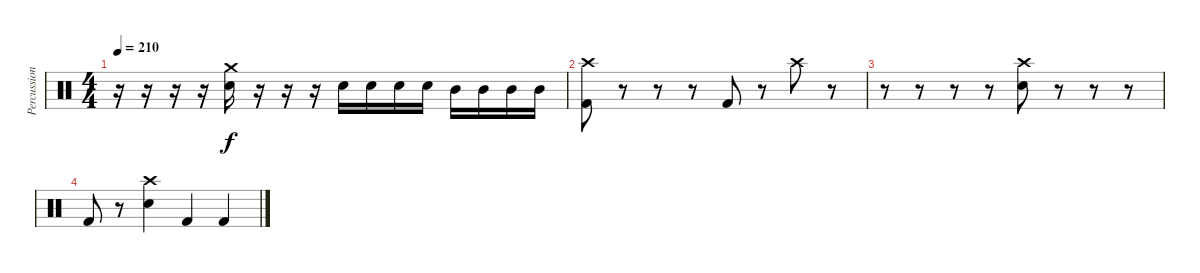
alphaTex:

\track ("Percussion" "Percussion") {instrument percussion}
\staff {score}
\articulation defaults
\ts (4 4)
\tempo 210
\clef neutral
\ks c
r.16{dy f} r.16 r.16 r.16 ("Crash medium (hit)" "Snare (hit) 2").16 r.16 r.16 r.16 "Snare (hit) 2".16 "Snare (hit) 2".16 "Snare (hit) 2".16 "Snare (hit) 2".16 "Mid Tom (hit)".16 "Mid Tom (hit)".16 "Mid Tom (hit)".16 "Mid Tom (hit)".16 |
("Crash high (hit)" "Kick (hit) 2").8 r.8 r.8 r.8 "Kick (hit) 2".8 r.8 "Crash high (hit)".8 r.8 |
r.8 r.8 r.8 r.8 ("Crash high (hit)" "Snare (hit) 2").8 r.8 r.8 r.8 |
"Kick (hit) 2".8 r.8 ("Crash high (hit)" "Snare (hit) 2").4 "Kick (hit) 2".4 "Kick (hit) 2".4
